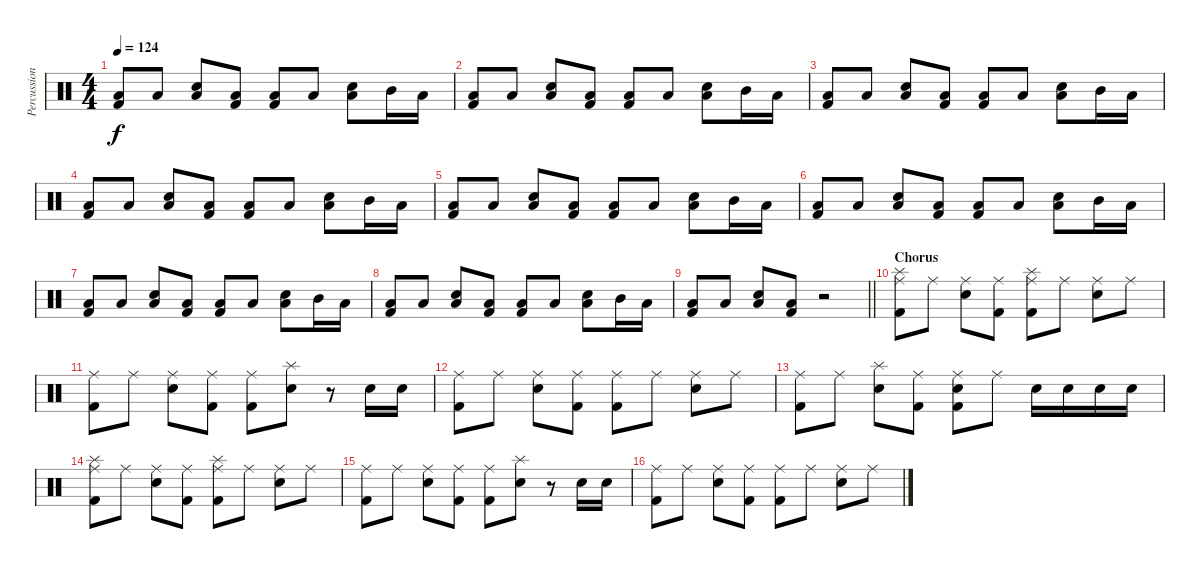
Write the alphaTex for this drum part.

\track ("Percussioni" "Percussion") {instrument percussion}
\staff {score}
\articulation defaults
\ts (4 4)
\tempo 124
\clef neutral
\ks c
("Low Floor Tom (hit)" "Kick (hit) 2").8{dy f} "Low Floor Tom (hit)".8 ("Snare (hit) 2" "Low Floor Tom (hit)").8 ("Low Floor Tom (hit)" "Kick (hit) 2").8 ("Low Floor Tom (hit)" "Kick (hit) 2").8 "Low Floor Tom (hit)".8 ("Snare (hit) 2" "Low Floor Tom (hit)").8 "Mid Tom (hit)".16 "Low Floor Tom (hit)".16 |
("Low Floor Tom (hit)" "Kick (hit) 2").8 "Low Floor Tom (hit)".8 ("Snare (hit) 2" "Low Floor Tom (hit)").8 ("Low Floor Tom (hit)" "Kick (hit) 2").8 ("Low Floor Tom (hit)" "Kick (hit) 2").8 "Low Floor Tom (hit)".8 ("Snare (hit) 2" "Low Floor Tom (hit)").8 "Mid Tom (hit)".16 "Low Floor Tom (hit)".16 |
("Low Floor Tom (hit)" "Kick (hit) 2").8 "Low Floor Tom (hit)".8 ("Snare (hit) 2" "Low Floor Tom (hit)").8 ("Low Floor Tom (hit)" "Kick (hit) 2").8 ("Low Floor Tom (hit)" "Kick (hit) 2").8 "Low Floor Tom (hit)".8 ("Snare (hit) 2" "Low Floor Tom (hit)").8 "Mid Tom (hit)".16 "Low Floor Tom (hit)".16 |
("Low Floor Tom (hit)" "Kick (hit) 2").8 "Low Floor Tom (hit)".8 ("Snare (hit) 2" "Low Floor Tom (hit)").8 ("Low Floor Tom (hit)" "Kick (hit) 2").8 ("Low Floor Tom (hit)" "Kick (hit) 2").8 "Low Floor Tom (hit)".8 ("Snare (hit) 2" "Low Floor Tom (hit)").8 "Mid Tom (hit)".16 "Low Floor Tom (hit)".16 |
("Low Floor Tom (hit)" "Kick (hit) 2").8 "Low Floor Tom (hit)".8 ("Snare (hit) 2" "Low Floor Tom (hit)").8 ("Low Floor Tom (hit)" "Kick (hit) 2").8 ("Low Floor Tom (hit)" "Kick (hit) 2").8 "Low Floor Tom (hit)".8 ("Snare (hit) 2" "Low Floor Tom (hit)").8 "Mid Tom (hit)".16 "Low Floor Tom (hit)".16 |
("Low Floor Tom (hit)" "Kick (hit) 2").8 "Low Floor Tom (hit)".8 ("Snare (hit) 2" "Low Floor Tom (hit)").8 ("Low Floor Tom (hit)" "Kick (hit) 2").8 ("Low Floor Tom (hit)" "Kick (hit) 2").8 "Low Floor Tom (hit)".8 ("Snare (hit) 2" "Low Floor Tom (hit)").8 "Mid Tom (hit)".16 "Low Floor Tom (hit)".16 |
("Low Floor Tom (hit)" "Kick (hit) 2").8 "Low Floor Tom (hit)".8 ("Snare (hit) 2" "Low Floor Tom (hit)").8 ("Low Floor Tom (hit)" "Kick (hit) 2").8 ("Low Floor Tom (hit)" "Kick (hit) 2").8 "Low Floor Tom (hit)".8 ("Snare (hit) 2" "Low Floor Tom (hit)").8 "Mid Tom (hit)".16 "Low Floor Tom (hit)".16 |
("Low Floor Tom (hit)" "Kick (hit) 2").8 "Low Floor Tom (hit)".8 ("Snare (hit) 2" "Low Floor Tom (hit)").8 ("Low Floor Tom (hit)" "Kick (hit) 2").8 ("Low Floor Tom (hit)" "Kick (hit) 2").8 "Low Floor Tom (hit)".8 ("Snare (hit) 2" "Low Floor Tom (hit)").8 "Mid Tom (hit)".16 "Low Floor Tom (hit)".16 |
\barLineRight lightlight
("Low Floor Tom (hit)" "Kick (hit) 2").8 "Low Floor Tom (hit)".8 ("Snare (hit) 2" "Low Floor Tom (hit)").8 ("Low Floor Tom (hit)" "Kick (hit) 2").8 r.2 |
\section ("" "Chorus")
("Ride (middle)" "Splash (hit)" "Kick (hit) 2").8 "Ride (middle)".8 ("Ride (middle)" "Snare (hit) 2").8 ("Ride (middle)" "Kick (hit) 2").8 ("Ride (middle)" "Splash (hit)" "Kick (hit) 2").8 "Ride (middle)".8 ("Ride (middle)" "Snare (hit) 2").8 "Ride (middle)".8 |
("Ride (middle)" "Kick (hit) 2").8 "Ride (middle)".8 ("Ride (middle)" "Snare (hit) 2").8 ("Ride (middle)" "Kick (hit) 2").8 ("Ride (middle)" "Kick (hit) 2").8 ("Splash (hit)" "Snare (hit) 2").8 r.8 "Snare (hit) 2".16 "Snare (hit) 2".16 |
("Ride (middle)" "Kick (hit) 2").8 "Ride (middle)".8 ("Ride (middle)" "Snare (hit) 2").8 ("Ride (middle)" "Kick (hit) 2").8 ("Ride (middle)" "Kick (hit) 2").8 "Ride (middle)".8 ("Ride (middle)" "Snare (hit) 2").8 "Ride (middle)".8 |
("Ride (middle)" "Kick (hit) 2").8 "Ride (middle)".8 ("Splash (hit)" "Snare (hit) 2").8 ("Ride (middle)" "Kick (hit) 2").8 ("Ride (middle)" "Snare (hit) 2" "Kick (hit) 2").8 "Ride (middle)".8 "Snare (hit) 2".16 "Snare (hit) 2".16 "Snare (hit) 2".16 "Snare (hit) 2".16 |
("Ride (middle)" "Splash (hit)" "Kick (hit) 2").8 "Ride (middle)".8 ("Ride (middle)" "Snare (hit) 2").8 ("Ride (middle)" "Kick (hit) 2").8 ("Ride (middle)" "Splash (hit)" "Kick (hit) 2").8 "Ride (middle)".8 ("Ride (middle)" "Snare (hit) 2").8 "Ride (middle)".8 |
("Ride (middle)" "Kick (hit) 2").8 "Ride (middle)".8 ("Ride (middle)" "Snare (hit) 2").8 ("Ride (middle)" "Kick (hit) 2").8 ("Ride (middle)" "Kick (hit) 2").8 ("Splash (hit)" "Snare (hit) 2").8 r.8 "Snare (hit) 2".16 "Snare (hit) 2".16 |
("Ride (middle)" "Kick (hit) 2").8 "Ride (middle)".8 ("Ride (middle)" "Snare (hit) 2").8 ("Ride (middle)" "Kick (hit) 2").8 ("Ride (middle)" "Kick (hit) 2").8 "Ride (middle)".8 ("Ride (middle)" "Snare (hit) 2").8 "Ride (middle)".8
